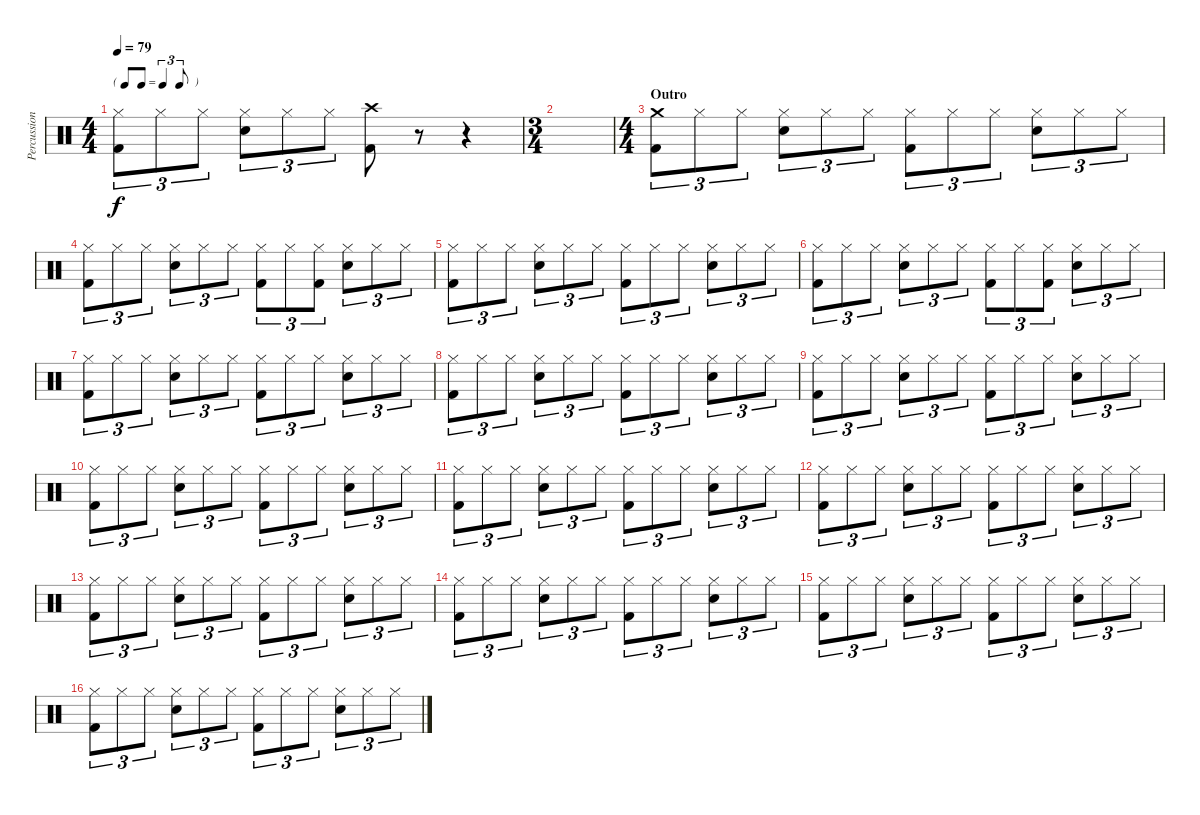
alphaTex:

\track ("Percussion" "Percussion") {instrument percussion}
\staff {score}
\articulation defaults
\ts (4 4)
\tf triplet8th
\tempo 79
\clef neutral
\ks c
("Hi-Hat (closed)" "Kick (hit) 2").8{tu (3 2) dy f} "Hi-Hat (closed)".8{tu (3 2)} "Hi-Hat (closed)".8{tu (3 2)} ("Hi-Hat (closed)" "Snare (hit) 2").8{tu (3 2)} "Hi-Hat (closed)".8{tu (3 2)} "Hi-Hat (closed)".8{tu (3 2)} ("Crash high (hit)" "Kick (hit) 2").8 r.8 r.4 |
\ts (3 4)
|
\ts (4 4)
\section ("" "Outro")
("Crash medium (hit)" "Kick (hit) 2").8{tu (3 2)} "Hi-Hat (closed)".8{tu (3 2)} "Hi-Hat (closed)".8{tu (3 2)} ("Hi-Hat (closed)" "Snare (hit) 2").8{tu (3 2)} "Hi-Hat (closed)".8{tu (3 2)} "Hi-Hat (closed)".8{tu (3 2)} ("Hi-Hat (closed)" "Kick (hit) 2").8{tu (3 2)} "Hi-Hat (closed)".8{tu (3 2)} "Hi-Hat (closed)".8{tu (3 2)} ("Hi-Hat (closed)" "Snare (hit) 2").8{tu (3 2)} "Hi-Hat (closed)".8{tu (3 2)} "Hi-Hat (closed)".8{tu (3 2)} |
("Hi-Hat (closed)" "Kick (hit) 2").8{tu (3 2)} "Hi-Hat (closed)".8{tu (3 2)} "Hi-Hat (closed)".8{tu (3 2)} ("Hi-Hat (closed)" "Snare (hit) 2").8{tu (3 2)} "Hi-Hat (closed)".8{tu (3 2)} "Hi-Hat (closed)".8{tu (3 2)} ("Hi-Hat (closed)" "Kick (hit) 2").8{tu (3 2)} "Hi-Hat (closed)".8{tu (3 2)} ("Hi-Hat (closed)" "Kick (hit) 2").8{tu (3 2)} ("Hi-Hat (closed)" "Snare (hit) 2").8{tu (3 2)} "Hi-Hat (closed)".8{tu (3 2)} "Hi-Hat (closed)".8{tu (3 2)} |
("Hi-Hat (closed)" "Kick (hit) 2").8{tu (3 2)} "Hi-Hat (closed)".8{tu (3 2)} "Hi-Hat (closed)".8{tu (3 2)} ("Hi-Hat (closed)" "Snare (hit) 2").8{tu (3 2)} "Hi-Hat (closed)".8{tu (3 2)} "Hi-Hat (closed)".8{tu (3 2)} ("Hi-Hat (closed)" "Kick (hit) 2").8{tu (3 2)} "Hi-Hat (closed)".8{tu (3 2)} "Hi-Hat (closed)".8{tu (3 2)} ("Hi-Hat (closed)" "Snare (hit) 2").8{tu (3 2)} "Hi-Hat (closed)".8{tu (3 2)} "Hi-Hat (closed)".8{tu (3 2)} |
("Hi-Hat (closed)" "Kick (hit) 2").8{tu (3 2)} "Hi-Hat (closed)".8{tu (3 2)} "Hi-Hat (closed)".8{tu (3 2)} ("Hi-Hat (closed)" "Snare (hit) 2").8{tu (3 2)} "Hi-Hat (closed)".8{tu (3 2)} "Hi-Hat (closed)".8{tu (3 2)} ("Hi-Hat (closed)" "Kick (hit) 2").8{tu (3 2)} "Hi-Hat (closed)".8{tu (3 2)} ("Hi-Hat (closed)" "Kick (hit) 2").8{tu (3 2)} ("Hi-Hat (closed)" "Snare (hit) 2").8{tu (3 2)} "Hi-Hat (closed)".8{tu (3 2)} "Hi-Hat (closed)".8{tu (3 2)} |
("Hi-Hat (closed)" "Kick (hit) 2").8{tu (3 2)} "Hi-Hat (closed)".8{tu (3 2)} "Hi-Hat (closed)".8{tu (3 2)} ("Hi-Hat (closed)" "Snare (hit) 2").8{tu (3 2)} "Hi-Hat (closed)".8{tu (3 2)} "Hi-Hat (closed)".8{tu (3 2)} ("Hi-Hat (closed)" "Kick (hit) 2").8{tu (3 2)} "Hi-Hat (closed)".8{tu (3 2)} "Hi-Hat (closed)".8{tu (3 2)} ("Hi-Hat (closed)" "Snare (hit) 2").8{tu (3 2)} "Hi-Hat (closed)".8{tu (3 2)} "Hi-Hat (closed)".8{tu (3 2)} |
("Hi-Hat (closed)" "Kick (hit) 2").8{tu (3 2)} "Hi-Hat (closed)".8{tu (3 2)} "Hi-Hat (closed)".8{tu (3 2)} ("Hi-Hat (closed)" "Snare (hit) 2").8{tu (3 2)} "Hi-Hat (closed)".8{tu (3 2)} "Hi-Hat (closed)".8{tu (3 2)} ("Hi-Hat (closed)" "Kick (hit) 2").8{tu (3 2)} "Hi-Hat (closed)".8{tu (3 2)} "Hi-Hat (closed)".8{tu (3 2)} ("Hi-Hat (closed)" "Snare (hit) 2").8{tu (3 2)} "Hi-Hat (closed)".8{tu (3 2)} "Hi-Hat (closed)".8{tu (3 2)} |
("Hi-Hat (closed)" "Kick (hit) 2").8{tu (3 2)} "Hi-Hat (closed)".8{tu (3 2)} "Hi-Hat (closed)".8{tu (3 2)} ("Hi-Hat (closed)" "Snare (hit) 2").8{tu (3 2)} "Hi-Hat (closed)".8{tu (3 2)} "Hi-Hat (closed)".8{tu (3 2)} ("Hi-Hat (closed)" "Kick (hit) 2").8{tu (3 2)} "Hi-Hat (closed)".8{tu (3 2)} "Hi-Hat (closed)".8{tu (3 2)} ("Hi-Hat (closed)" "Snare (hit) 2").8{tu (3 2)} "Hi-Hat (closed)".8{tu (3 2)} "Hi-Hat (closed)".8{tu (3 2)} |
("Hi-Hat (closed)" "Kick (hit) 2").8{tu (3 2)} "Hi-Hat (closed)".8{tu (3 2)} "Hi-Hat (closed)".8{tu (3 2)} ("Hi-Hat (closed)" "Snare (hit) 2").8{tu (3 2)} "Hi-Hat (closed)".8{tu (3 2)} "Hi-Hat (closed)".8{tu (3 2)} ("Hi-Hat (closed)" "Kick (hit) 2").8{tu (3 2)} "Hi-Hat (closed)".8{tu (3 2)} "Hi-Hat (closed)".8{tu (3 2)} ("Hi-Hat (closed)" "Snare (hit) 2").8{tu (3 2)} "Hi-Hat (closed)".8{tu (3 2)} "Hi-Hat (closed)".8{tu (3 2)} |
("Hi-Hat (closed)" "Kick (hit) 2").8{tu (3 2)} "Hi-Hat (closed)".8{tu (3 2)} "Hi-Hat (closed)".8{tu (3 2)} ("Hi-Hat (closed)" "Snare (hit) 2").8{tu (3 2)} "Hi-Hat (closed)".8{tu (3 2)} "Hi-Hat (closed)".8{tu (3 2)} ("Hi-Hat (closed)" "Kick (hit) 2").8{tu (3 2)} "Hi-Hat (closed)".8{tu (3 2)} "Hi-Hat (closed)".8{tu (3 2)} ("Hi-Hat (closed)" "Snare (hit) 2").8{tu (3 2)} "Hi-Hat (closed)".8{tu (3 2)} "Hi-Hat (closed)".8{tu (3 2)} |
("Hi-Hat (closed)" "Kick (hit) 2").8{tu (3 2)} "Hi-Hat (closed)".8{tu (3 2)} "Hi-Hat (closed)".8{tu (3 2)} ("Hi-Hat (closed)" "Snare (hit) 2").8{tu (3 2)} "Hi-Hat (closed)".8{tu (3 2)} "Hi-Hat (closed)".8{tu (3 2)} ("Hi-Hat (closed)" "Kick (hit) 2").8{tu (3 2)} "Hi-Hat (closed)".8{tu (3 2)} "Hi-Hat (closed)".8{tu (3 2)} ("Hi-Hat (closed)" "Snare (hit) 2").8{tu (3 2)} "Hi-Hat (closed)".8{tu (3 2)} "Hi-Hat (closed)".8{tu (3 2)} |
("Hi-Hat (closed)" "Kick (hit) 2").8{tu (3 2)} "Hi-Hat (closed)".8{tu (3 2)} "Hi-Hat (closed)".8{tu (3 2)} ("Hi-Hat (closed)" "Snare (hit) 2").8{tu (3 2)} "Hi-Hat (closed)".8{tu (3 2)} "Hi-Hat (closed)".8{tu (3 2)} ("Hi-Hat (closed)" "Kick (hit) 2").8{tu (3 2)} "Hi-Hat (closed)".8{tu (3 2)} "Hi-Hat (closed)".8{tu (3 2)} ("Hi-Hat (closed)" "Snare (hit) 2").8{tu (3 2)} "Hi-Hat (closed)".8{tu (3 2)} "Hi-Hat (closed)".8{tu (3 2)} |
("Hi-Hat (closed)" "Kick (hit) 2").8{tu (3 2)} "Hi-Hat (closed)".8{tu (3 2)} "Hi-Hat (closed)".8{tu (3 2)} ("Hi-Hat (closed)" "Snare (hit) 2").8{tu (3 2)} "Hi-Hat (closed)".8{tu (3 2)} "Hi-Hat (closed)".8{tu (3 2)} ("Hi-Hat (closed)" "Kick (hit) 2").8{tu (3 2)} "Hi-Hat (closed)".8{tu (3 2)} "Hi-Hat (closed)".8{tu (3 2)} ("Hi-Hat (closed)" "Snare (hit) 2").8{tu (3 2)} "Hi-Hat (closed)".8{tu (3 2)} "Hi-Hat (closed)".8{tu (3 2)} |
("Hi-Hat (closed)" "Kick (hit) 2").8{tu (3 2)} "Hi-Hat (closed)".8{tu (3 2)} "Hi-Hat (closed)".8{tu (3 2)} ("Hi-Hat (closed)" "Snare (hit) 2").8{tu (3 2)} "Hi-Hat (closed)".8{tu (3 2)} "Hi-Hat (closed)".8{tu (3 2)} ("Hi-Hat (closed)" "Kick (hit) 2").8{tu (3 2)} "Hi-Hat (closed)".8{tu (3 2)} "Hi-Hat (closed)".8{tu (3 2)} ("Hi-Hat (closed)" "Snare (hit) 2").8{tu (3 2)} "Hi-Hat (closed)".8{tu (3 2)} "Hi-Hat (closed)".8{tu (3 2)} |
("Hi-Hat (closed)" "Kick (hit) 2").8{tu (3 2)} "Hi-Hat (closed)".8{tu (3 2)} "Hi-Hat (closed)".8{tu (3 2)} ("Hi-Hat (closed)" "Snare (hit) 2").8{tu (3 2)} "Hi-Hat (closed)".8{tu (3 2)} "Hi-Hat (closed)".8{tu (3 2)} ("Hi-Hat (closed)" "Kick (hit) 2").8{tu (3 2)} "Hi-Hat (closed)".8{tu (3 2)} "Hi-Hat (closed)".8{tu (3 2)} ("Hi-Hat (closed)" "Snare (hit) 2").8{tu (3 2)} "Hi-Hat (closed)".8{tu (3 2)} "Hi-Hat (closed)".8{tu (3 2)}
